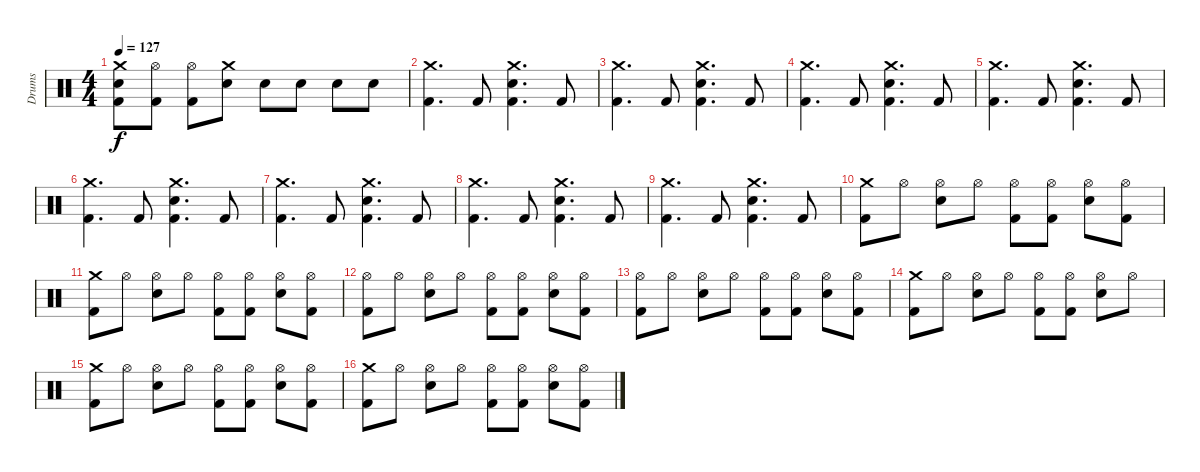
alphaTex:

\track ("Drums" "Drums") {instrument percussion}
\staff {score}
\articulation defaults
\ts (4 4)
\tempo 127
\clef neutral
\ks c
("Kick (hit) 2" "Electric Snare (hit)" "Crash medium (hit)").8{dy f} ("Kick (hit) 2" "Hi-Hat (open)").8 ("Kick (hit) 2" "Hi-Hat (open)").8 ("Electric Snare (hit)" "Crash medium (hit)").8 "Electric Snare (hit)".8 "Electric Snare (hit)".8 "Electric Snare (hit)".8 "Electric Snare (hit)".8 |
("Kick (hit) 2" "Crash medium (hit)").4{d} "Kick (hit) 2".8 ("Kick (hit) 2" "Electric Snare (hit)" "Crash medium (hit)").4{d} "Kick (hit) 2".8 |
("Kick (hit) 2" "Crash medium (hit)").4{d} "Kick (hit) 2".8 ("Kick (hit) 2" "Electric Snare (hit)" "Crash medium (hit)").4{d} "Kick (hit) 2".8 |
("Kick (hit) 2" "Crash medium (hit)").4{d} "Kick (hit) 2".8 ("Kick (hit) 2" "Electric Snare (hit)" "Crash medium (hit)").4{d} "Kick (hit) 2".8 |
("Kick (hit) 2" "Crash medium (hit)").4{d} "Kick (hit) 2".8 ("Kick (hit) 2" "Electric Snare (hit)" "Crash medium (hit)").4{d} "Kick (hit) 2".8 |
("Kick (hit) 2" "Crash medium (hit)").4{d} "Kick (hit) 2".8 ("Kick (hit) 2" "Electric Snare (hit)" "Crash medium (hit)").4{d} "Kick (hit) 2".8 |
("Kick (hit) 2" "Crash medium (hit)").4{d} "Kick (hit) 2".8 ("Kick (hit) 2" "Electric Snare (hit)" "Crash medium (hit)").4{d} "Kick (hit) 2".8 |
("Kick (hit) 2" "Crash medium (hit)").4{d} "Kick (hit) 2".8 ("Kick (hit) 2" "Electric Snare (hit)" "Crash medium (hit)").4{d} "Kick (hit) 2".8 |
("Kick (hit) 2" "Crash medium (hit)").4{d} "Kick (hit) 2".8 ("Kick (hit) 2" "Electric Snare (hit)" "Crash medium (hit)").4{d} "Kick (hit) 2".8 |
("Kick (hit) 2" "Crash medium (hit)").8 "Hi-Hat (open)".8 ("Electric Snare (hit)" "Hi-Hat (open)").8 "Hi-Hat (open)".8 ("Kick (hit) 2" "Hi-Hat (open)").8 ("Kick (hit) 2" "Hi-Hat (open)").8 ("Electric Snare (hit)" "Hi-Hat (open)").8 ("Kick (hit) 2" "Hi-Hat (open)").8 |
("Kick (hit) 2" "Crash medium (hit)").8 "Hi-Hat (open)".8 ("Electric Snare (hit)" "Hi-Hat (open)").8 "Hi-Hat (open)".8 ("Kick (hit) 2" "Hi-Hat (open)").8 ("Kick (hit) 2" "Hi-Hat (open)").8 ("Electric Snare (hit)" "Hi-Hat (open)").8 ("Kick (hit) 2" "Hi-Hat (open)").8 |
("Kick (hit) 2" "Hi-Hat (open)").8 "Hi-Hat (open)".8 ("Electric Snare (hit)" "Hi-Hat (open)").8 "Hi-Hat (open)".8 ("Kick (hit) 2" "Hi-Hat (open)").8 ("Kick (hit) 2" "Hi-Hat (open)").8 ("Electric Snare (hit)" "Hi-Hat (open)").8 ("Kick (hit) 2" "Hi-Hat (open)").8 |
("Kick (hit) 2" "Hi-Hat (open)").8 "Hi-Hat (open)".8 ("Electric Snare (hit)" "Hi-Hat (open)").8 "Hi-Hat (open)".8 ("Kick (hit) 2" "Hi-Hat (open)").8 ("Kick (hit) 2" "Hi-Hat (open)").8 ("Electric Snare (hit)" "Hi-Hat (open)").8 ("Kick (hit) 2" "Hi-Hat (open)").8 |
("Kick (hit) 2" "Crash medium (hit)").8 "Hi-Hat (open)".8 ("Electric Snare (hit)" "Hi-Hat (open)").8 "Hi-Hat (open)".8 ("Kick (hit) 2" "Hi-Hat (open)").8 ("Kick (hit) 2" "Hi-Hat (open)").8 ("Electric Snare (hit)" "Hi-Hat (open)").8 "Hi-Hat (open)".8 |
("Kick (hit) 2" "Crash medium (hit)").8 "Hi-Hat (open)".8 ("Electric Snare (hit)" "Hi-Hat (open)").8 "Hi-Hat (open)".8 ("Kick (hit) 2" "Hi-Hat (open)").8 ("Kick (hit) 2" "Hi-Hat (open)").8 ("Electric Snare (hit)" "Hi-Hat (open)").8 ("Kick (hit) 2" "Hi-Hat (open)").8 |
("Kick (hit) 2" "Crash medium (hit)").8 "Hi-Hat (open)".8 ("Electric Snare (hit)" "Hi-Hat (open)").8 "Hi-Hat (open)".8 ("Kick (hit) 2" "Hi-Hat (open)").8 ("Kick (hit) 2" "Hi-Hat (open)").8 ("Electric Snare (hit)" "Hi-Hat (open)").8 ("Kick (hit) 2" "Hi-Hat (open)").8
